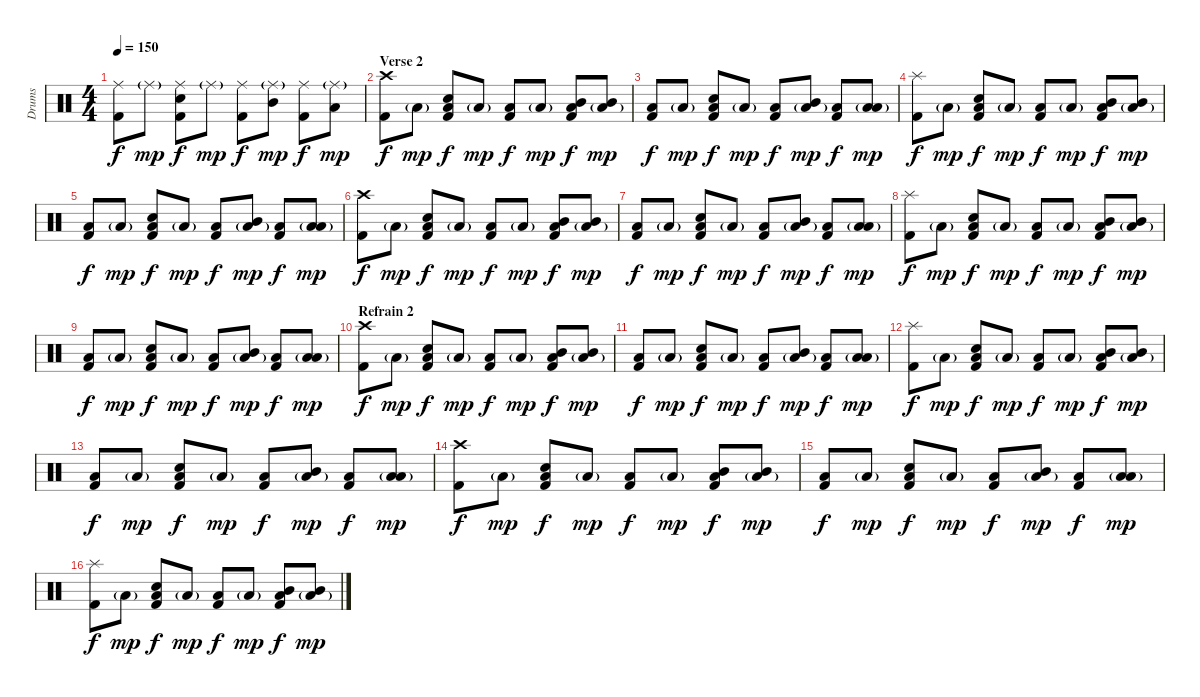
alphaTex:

\track ("Drums" "Drums") {instrument percussion}
\staff {score}
\articulation defaults
\ts (4 4)
\tempo 150
\clef neutral
\ks c
("Ride (middle)" "Kick (hit) 2").8{dy f} "Ride (middle)"{g}.8{dy mp} ("Ride (middle)" "Kick (hit) 2" "Electric Snare (hit)").8{dy f} "Ride (middle)"{g}.8{dy mp} ("Ride (middle)" "Kick (hit) 2").8{dy f} ("Ride (middle)"{g} "Mid Tom (hit)").8{dy mp} ("Ride (middle)" "Kick (hit) 2").8{dy f} ("Ride (middle)"{g} "Low Tom (hit)").8{dy mp} |
\section ("" "Verse 2")
("Crash high (hit)" "Kick (hit) 2").8{dy f} "Low Floor Tom (hit)"{g}.8{dy mp} ("Low Floor Tom (hit)" "Kick (hit) 2" "Electric Snare (hit)").8{dy f} "Low Floor Tom (hit)"{g}.8{dy mp} ("Low Floor Tom (hit)" "Kick (hit) 2").8{dy f} "Low Floor Tom (hit)"{g}.8{dy mp} ("Low Floor Tom (hit)" "Kick (hit) 2" "Mid Tom (hit)").8{dy f} ("Low Floor Tom (hit)"{g} "Mid Tom (hit)").8{dy mp} |
("Low Floor Tom (hit)" "Kick (hit) 2").8{dy f} "Low Floor Tom (hit)"{g}.8{dy mp} ("Low Floor Tom (hit)" "Kick (hit) 2" "Electric Snare (hit)").8{dy f} "Low Floor Tom (hit)"{g}.8{dy mp} ("Low Floor Tom (hit)" "Kick (hit) 2").8{dy f} ("Low Floor Tom (hit)"{g} "Mid Tom (hit)").8{dy mp} ("Low Floor Tom (hit)" "Kick (hit) 2").8{dy f} ("Low Floor Tom (hit)"{g} "Low Tom (hit)").8{dy mp} |
("Splash (hit)" "Kick (hit) 2").8{dy f} "Low Floor Tom (hit)"{g}.8{dy mp} ("Low Floor Tom (hit)" "Kick (hit) 2" "Electric Snare (hit)").8{dy f} "Low Floor Tom (hit)"{g}.8{dy mp} ("Low Floor Tom (hit)" "Kick (hit) 2").8{dy f} "Low Floor Tom (hit)"{g}.8{dy mp} ("Low Floor Tom (hit)" "Kick (hit) 2" "Mid Tom (hit)").8{dy f} ("Low Floor Tom (hit)"{g} "Mid Tom (hit)").8{dy mp} |
("Low Floor Tom (hit)" "Kick (hit) 2").8{dy f} "Low Floor Tom (hit)"{g}.8{dy mp} ("Low Floor Tom (hit)" "Kick (hit) 2" "Electric Snare (hit)").8{dy f} "Low Floor Tom (hit)"{g}.8{dy mp} ("Low Floor Tom (hit)" "Kick (hit) 2").8{dy f} ("Low Floor Tom (hit)"{g} "Mid Tom (hit)").8{dy mp} ("Low Floor Tom (hit)" "Kick (hit) 2").8{dy f} ("Low Floor Tom (hit)"{g} "Low Tom (hit)").8{dy mp} |
("Crash high (hit)" "Kick (hit) 2").8{dy f} "Low Floor Tom (hit)"{g}.8{dy mp} ("Low Floor Tom (hit)" "Kick (hit) 2" "Electric Snare (hit)").8{dy f} "Low Floor Tom (hit)"{g}.8{dy mp} ("Low Floor Tom (hit)" "Kick (hit) 2").8{dy f} "Low Floor Tom (hit)"{g}.8{dy mp} ("Low Floor Tom (hit)" "Kick (hit) 2" "Mid Tom (hit)").8{dy f} ("Low Floor Tom (hit)"{g} "Mid Tom (hit)").8{dy mp} |
("Low Floor Tom (hit)" "Kick (hit) 2").8{dy f} "Low Floor Tom (hit)"{g}.8{dy mp} ("Low Floor Tom (hit)" "Kick (hit) 2" "Electric Snare (hit)").8{dy f} "Low Floor Tom (hit)"{g}.8{dy mp} ("Low Floor Tom (hit)" "Kick (hit) 2").8{dy f} ("Low Floor Tom (hit)"{g} "Mid Tom (hit)").8{dy mp} ("Low Floor Tom (hit)" "Kick (hit) 2").8{dy f} ("Low Floor Tom (hit)"{g} "Low Tom (hit)").8{dy mp} |
("Splash (hit)" "Kick (hit) 2").8{dy f} "Low Floor Tom (hit)"{g}.8{dy mp} ("Low Floor Tom (hit)" "Kick (hit) 2" "Electric Snare (hit)").8{dy f} "Low Floor Tom (hit)"{g}.8{dy mp} ("Low Floor Tom (hit)" "Kick (hit) 2").8{dy f} "Low Floor Tom (hit)"{g}.8{dy mp} ("Low Floor Tom (hit)" "Kick (hit) 2" "Mid Tom (hit)").8{dy f} ("Low Floor Tom (hit)"{g} "Mid Tom (hit)").8{dy mp} |
("Low Floor Tom (hit)" "Kick (hit) 2").8{dy f} "Low Floor Tom (hit)"{g}.8{dy mp} ("Low Floor Tom (hit)" "Kick (hit) 2" "Electric Snare (hit)").8{dy f} "Low Floor Tom (hit)"{g}.8{dy mp} ("Low Floor Tom (hit)" "Kick (hit) 2").8{dy f} ("Low Floor Tom (hit)"{g} "Mid Tom (hit)").8{dy mp} ("Low Floor Tom (hit)" "Kick (hit) 2").8{dy f} ("Low Floor Tom (hit)"{g} "Low Tom (hit)").8{dy mp} |
\section ("" "Refrain 2")
("Crash high (hit)" "Kick (hit) 2").8{dy f} "Low Floor Tom (hit)"{g}.8{dy mp} ("Low Floor Tom (hit)" "Kick (hit) 2" "Electric Snare (hit)").8{dy f} "Low Floor Tom (hit)"{g}.8{dy mp} ("Low Floor Tom (hit)" "Kick (hit) 2").8{dy f} "Low Floor Tom (hit)"{g}.8{dy mp} ("Low Floor Tom (hit)" "Kick (hit) 2" "Mid Tom (hit)").8{dy f} ("Low Floor Tom (hit)"{g} "Mid Tom (hit)").8{dy mp} |
("Low Floor Tom (hit)" "Kick (hit) 2").8{dy f} "Low Floor Tom (hit)"{g}.8{dy mp} ("Low Floor Tom (hit)" "Kick (hit) 2" "Electric Snare (hit)").8{dy f} "Low Floor Tom (hit)"{g}.8{dy mp} ("Low Floor Tom (hit)" "Kick (hit) 2").8{dy f} ("Low Floor Tom (hit)"{g} "Mid Tom (hit)").8{dy mp} ("Low Floor Tom (hit)" "Kick (hit) 2").8{dy f} ("Low Floor Tom (hit)"{g} "Low Tom (hit)").8{dy mp} |
("Splash (hit)" "Kick (hit) 2").8{dy f} "Low Floor Tom (hit)"{g}.8{dy mp} ("Low Floor Tom (hit)" "Kick (hit) 2" "Electric Snare (hit)").8{dy f} "Low Floor Tom (hit)"{g}.8{dy mp} ("Low Floor Tom (hit)" "Kick (hit) 2").8{dy f} "Low Floor Tom (hit)"{g}.8{dy mp} ("Low Floor Tom (hit)" "Kick (hit) 2" "Mid Tom (hit)").8{dy f} ("Low Floor Tom (hit)"{g} "Mid Tom (hit)").8{dy mp} |
("Low Floor Tom (hit)" "Kick (hit) 2").8{dy f} "Low Floor Tom (hit)"{g}.8{dy mp} ("Low Floor Tom (hit)" "Kick (hit) 2" "Electric Snare (hit)").8{dy f} "Low Floor Tom (hit)"{g}.8{dy mp} ("Low Floor Tom (hit)" "Kick (hit) 2").8{dy f} ("Low Floor Tom (hit)"{g} "Mid Tom (hit)").8{dy mp} ("Low Floor Tom (hit)" "Kick (hit) 2").8{dy f} ("Low Floor Tom (hit)"{g} "Low Tom (hit)").8{dy mp} |
("Crash high (hit)" "Kick (hit) 2").8{dy f} "Low Floor Tom (hit)"{g}.8{dy mp} ("Low Floor Tom (hit)" "Kick (hit) 2" "Electric Snare (hit)").8{dy f} "Low Floor Tom (hit)"{g}.8{dy mp} ("Low Floor Tom (hit)" "Kick (hit) 2").8{dy f} "Low Floor Tom (hit)"{g}.8{dy mp} ("Low Floor Tom (hit)" "Kick (hit) 2" "Mid Tom (hit)").8{dy f} ("Low Floor Tom (hit)"{g} "Mid Tom (hit)").8{dy mp} |
("Low Floor Tom (hit)" "Kick (hit) 2").8{dy f} "Low Floor Tom (hit)"{g}.8{dy mp} ("Low Floor Tom (hit)" "Kick (hit) 2" "Electric Snare (hit)").8{dy f} "Low Floor Tom (hit)"{g}.8{dy mp} ("Low Floor Tom (hit)" "Kick (hit) 2").8{dy f} ("Low Floor Tom (hit)"{g} "Mid Tom (hit)").8{dy mp} ("Low Floor Tom (hit)" "Kick (hit) 2").8{dy f} ("Low Floor Tom (hit)"{g} "Low Tom (hit)").8{dy mp} |
("Splash (hit)" "Kick (hit) 2").8{dy f} "Low Floor Tom (hit)"{g}.8{dy mp} ("Low Floor Tom (hit)" "Kick (hit) 2" "Electric Snare (hit)").8{dy f} "Low Floor Tom (hit)"{g}.8{dy mp} ("Low Floor Tom (hit)" "Kick (hit) 2").8{dy f} "Low Floor Tom (hit)"{g}.8{dy mp} ("Low Floor Tom (hit)" "Kick (hit) 2" "Mid Tom (hit)").8{dy f} ("Low Floor Tom (hit)"{g} "Mid Tom (hit)").8{dy mp}
